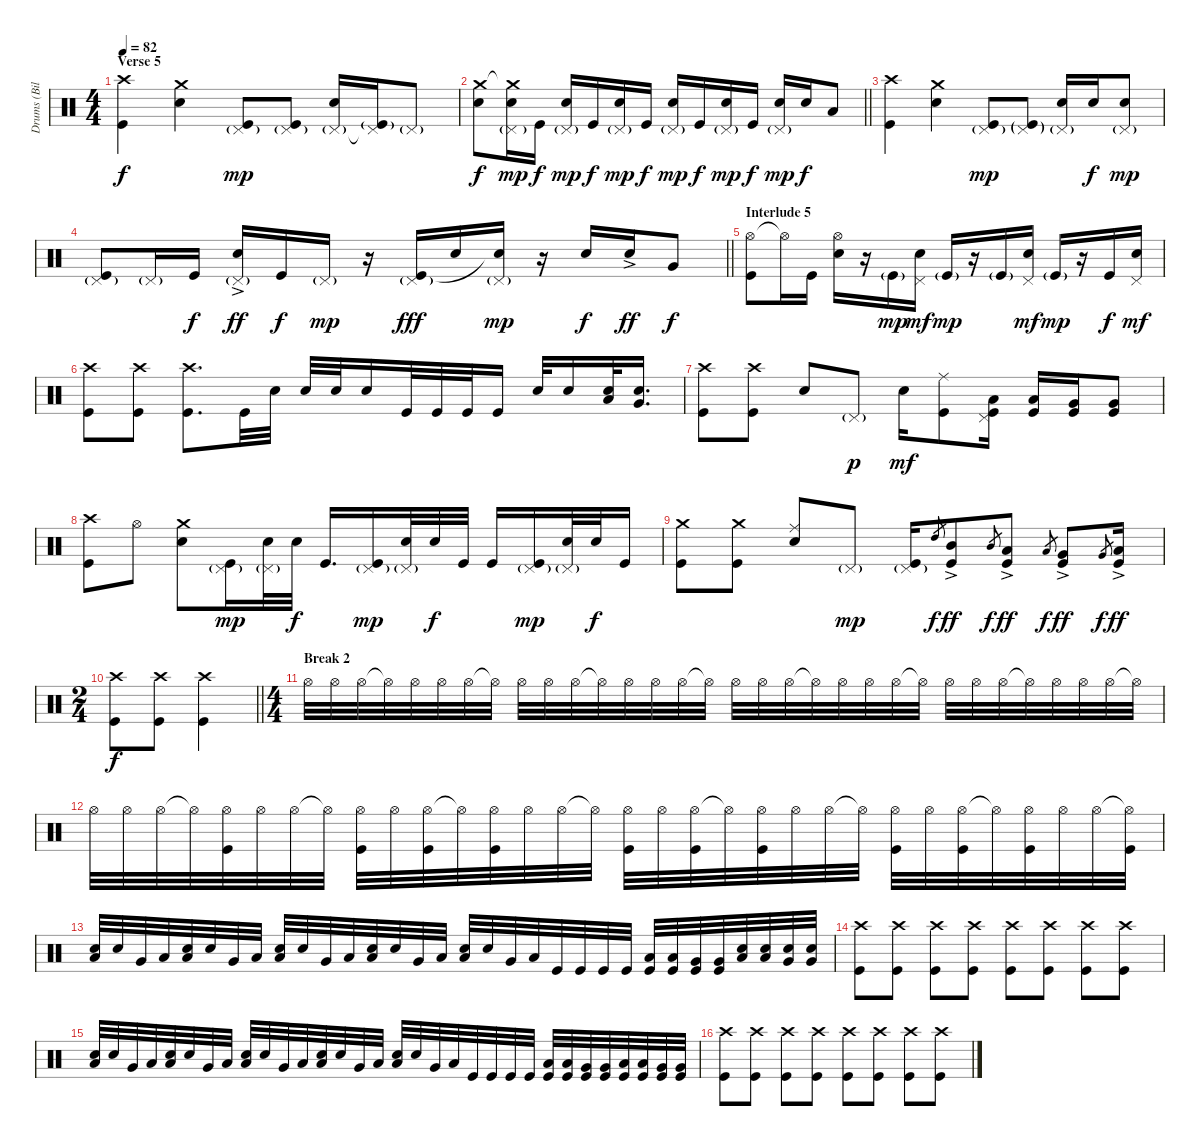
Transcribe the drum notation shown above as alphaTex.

\track ("Drums (Bill Ward)" "Drums (Bil") {instrument percussion}
\staff {score}
\articulation defaults
\ts (4 4)
\section ("" "Verse 5")
\tempo 82
\clef neutral
\ks c
("Crash high (hit)" "Kick (hit)").4{dy f} ("Crash medium (hit)" "Electric Snare (hit)").4 ("Pedal Hi-Hat (hit)"{g} "Kick (hit)").8{dy mp} ("Pedal Hi-Hat (hit)"{g} "Kick (hit)").8 ("Pedal Hi-Hat (hit)"{g} "Electric Snare (hit)").16 ("Pedal Hi-Hat (hit)"{t} "Kick (hit)"{g}).16 "Pedal Hi-Hat (hit)"{g}.8 |
\barLineRight lightlight
("Crash medium (hit)" "Electric Snare (hit)").8{dy f} ("Crash medium (hit)"{t} "Pedal Hi-Hat (hit)"{g} "Electric Snare (hit)").16{dy mp} "Kick (hit)".16{dy f} ("Pedal Hi-Hat (hit)"{g} "Electric Snare (hit)").16{dy mp} "Kick (hit)".16{dy f} ("Pedal Hi-Hat (hit)"{g} "Electric Snare (hit)").16{dy mp} "Kick (hit)".16{dy f} ("Pedal Hi-Hat (hit)"{g} "Electric Snare (hit)").16{dy mp} "Kick (hit)".16{dy f} ("Pedal Hi-Hat (hit)"{g} "Electric Snare (hit)").16{dy mp} "Kick (hit)".16{dy f} ("Pedal Hi-Hat (hit)"{g} "Electric Snare (hit)").16{dy mp} "Electric Snare (hit)".16{dy f} "Low Tom (hit)".8 |
("Crash high (hit)" "Kick (hit)").4 ("Crash medium (hit)" "Electric Snare (hit)").4 ("Pedal Hi-Hat (hit)"{g} "Kick (hit)").8{dy mp} ("Pedal Hi-Hat (hit)"{g} "Kick (hit)"{g}).8 ("Pedal Hi-Hat (hit)"{g} "Electric Snare (hit)").16 "Electric Snare (hit)".16{dy f} ("Pedal Hi-Hat (hit)"{g} "Electric Snare (hit)").8{dy mp} |
\barLineRight lightlight
("Pedal Hi-Hat (hit)"{g} "Kick (hit)").8 "Pedal Hi-Hat (hit)"{g}.16 "Kick (hit)".16{dy f} ("Pedal Hi-Hat (hit)"{g} "Electric Snare (hit)"{ac}).16{dy ff} "Kick (hit)".16{dy f} "Pedal Hi-Hat (hit)"{g}.16{dy mp} r.16 ("Pedal Hi-Hat (hit)"{g} "Kick (hit)").16{dy fff} "Electric Snare (hit)".16 ("Pedal Hi-Hat (hit)"{g} "Electric Snare (hit)"{t}).16{dy mp} r.16 "Electric Snare (hit)".16{dy f} "Electric Snare (hit)"{ac}.16{dy ff} "Very Low Tom (hit)".8{dy f} |
\section ("" "Interlude 5")
("Hi-Hat (open)" "Kick (hit)").8 "Hi-Hat (open)"{t}.16 "Kick (hit)".16 ("Hi-Hat (open)" "Electric Snare (hit)").16 r.16 "Kick (hit)"{g}.16{dy mp} ("Pedal Hi-Hat (hit)" "Electric Snare (hit)").16{dy mf} "Kick (hit)"{g}.16{dy mp} r.16 "Kick (hit)"{g}.16 ("Pedal Hi-Hat (hit)" "Electric Snare (hit)").16{dy mf} "Kick (hit)"{g}.16{dy mp} r.16 "Kick (hit)".16{dy f} ("Pedal Hi-Hat (hit)" "Electric Snare (hit)").16{dy mf} |
("Crash high (hit)" "Kick (hit)").8 ("Crash high (hit)" "Kick (hit)").8 ("Crash high (hit)" "Kick (hit)").8{d} "Kick (hit)".32 "Electric Snare (hit)".32 "Electric Snare (hit)".32 "Electric Snare (hit)".32 "Electric Snare (hit)".16 "Kick (hit)".32 "Kick (hit)".32 "Kick (hit)".32 "Kick (hit)".16 "Electric Snare (hit)".32 "Electric Snare (hit)".16 ("Low Tom (hit)" "Electric Snare (hit)").32 ("Very Low Tom (hit)" "Electric Snare (hit)").16{d} |
("Crash high (hit)" "Kick (hit)").8 ("Crash high (hit)" "Kick (hit)").8 "Electric Snare (hit)".8 "Pedal Hi-Hat (hit)"{g}.8{dy p} "Electric Snare (hit)".16{dy mf} ("Ride (middle)" "Kick (hit)").8 ("Pedal Hi-Hat (hit)" "Low Tom (hit)" "Kick (hit)").16 ("Low Tom (hit)" "Kick (hit)").16 ("Very Low Tom (hit)" "Kick (hit)").16 ("Very Low Tom (hit)" "Kick (hit)").8 |
("Crash high (hit)" "Kick (hit)").8 "Hi-Hat (open)".8 ("Crash medium (hit)" "Electric Snare (hit)").8 ("Pedal Hi-Hat (hit)"{g} "Kick (hit)").16{dy mp} ("Pedal Hi-Hat (hit)"{g} "Electric Snare (hit)").32 "Electric Snare (hit)".32{dy f} "Kick (hit)".16{d} ("Pedal Hi-Hat (hit)"{g} "Kick (hit)").16{dy mp} ("Pedal Hi-Hat (hit)"{g} "Electric Snare (hit)").32 "Electric Snare (hit)".32{dy f} "Kick (hit)".32 "Kick (hit)".16 ("Pedal Hi-Hat (hit)"{g} "Kick (hit)").16{dy mp} ("Pedal Hi-Hat (hit)"{g} "Electric Snare (hit)").32 "Electric Snare (hit)".32{dy f} "Kick (hit)".16 |
("Crash medium (hit)" "Kick (hit)").8 ("Crash medium (hit)" "Kick (hit)").8 ("Ride (middle)" "Electric Snare (hit)").8 "Pedal Hi-Hat (hit)"{g}.8{dy mp} ("Pedal Hi-Hat (hit)"{g} "Kick (hit)").16 "High Tom (hit)".8{gr dy f} ("Mid Tom (hit)"{ac} "Kick (hit)").8{dy ff} "Mid Tom (hit)".8{gr dy f} ("Low Tom (hit)"{ac} "Kick (hit)").8{dy ff} "Low Tom (hit)".8{gr dy f} ("Very Low Tom (hit)"{ac} "Kick (hit)").8{dy ff} "Very Low Tom (hit)".8{gr dy f} ("Low Floor Tom (hit)"{ac} "Kick (hit)").16{dy ff} |
\ts (2 4)
\barLineRight lightlight
("Crash high (hit)" "Kick (hit)").8{dy f} ("Crash high (hit)" "Kick (hit)").8 ("Crash high (hit)" "Kick (hit)").4 |
\ts (4 4)
\section ("" "Break 2")
"Hi-Hat (open)".32{volume 8} "Hi-Hat (open)".32{volume 14} "Hi-Hat (open)".32 "Hi-Hat (open)"{t}.32 "Hi-Hat (open)".32 "Hi-Hat (open)".32 "Hi-Hat (open)".32 "Hi-Hat (open)"{t}.32 "Hi-Hat (open)".32 "Hi-Hat (open)".32 "Hi-Hat (open)".32 "Hi-Hat (open)"{t}.32 "Hi-Hat (open)".32 "Hi-Hat (open)".32 "Hi-Hat (open)".32 "Hi-Hat (open)"{t}.32 "Hi-Hat (open)".32 "Hi-Hat (open)".32 "Hi-Hat (open)".32 "Hi-Hat (open)"{t}.32 "Hi-Hat (open)".32 "Hi-Hat (open)".32 "Hi-Hat (open)".32 "Hi-Hat (open)"{t}.32 "Hi-Hat (open)".32 "Hi-Hat (open)".32 "Hi-Hat (open)".32 "Hi-Hat (open)"{t}.32 "Hi-Hat (open)".32 "Hi-Hat (open)".32 "Hi-Hat (open)".32 "Hi-Hat (open)"{t}.32 |
"Hi-Hat (open)".32 "Hi-Hat (open)".32 "Hi-Hat (open)".32 "Hi-Hat (open)"{t}.32 ("Hi-Hat (open)" "Kick (hit)").32 "Hi-Hat (open)".32 "Hi-Hat (open)".32 "Hi-Hat (open)"{t}.32 ("Hi-Hat (open)" "Kick (hit)").32 "Hi-Hat (open)".32 ("Hi-Hat (open)" "Kick (hit)").32 "Hi-Hat (open)"{t}.32 ("Hi-Hat (open)" "Kick (hit)").32 "Hi-Hat (open)".32 "Hi-Hat (open)".32 "Hi-Hat (open)"{t}.32 ("Hi-Hat (open)" "Kick (hit)").32 "Hi-Hat (open)".32 ("Hi-Hat (open)" "Kick (hit)").32 "Hi-Hat (open)"{t}.32 ("Hi-Hat (open)" "Kick (hit)").32 "Hi-Hat (open)".32 "Hi-Hat (open)".32 "Hi-Hat (open)"{t}.32 ("Hi-Hat (open)" "Kick (hit)").32 "Hi-Hat (open)".32 ("Hi-Hat (open)" "Kick (hit)").32 "Hi-Hat (open)"{t}.32 ("Hi-Hat (open)" "Kick (hit)").32 "Hi-Hat (open)".32 "Hi-Hat (open)".32 ("Hi-Hat (open)"{t} "Kick (hit)").32 |
("Low Tom (hit)" "Electric Snare (hit)").32 "Electric Snare (hit)".32 "Very Low Tom (hit)".32 "Low Floor Tom (hit)".32 ("Low Tom (hit)" "Electric Snare (hit)").32 "Electric Snare (hit)".32 "Very Low Tom (hit)".32 "Low Floor Tom (hit)".32 ("Low Tom (hit)" "Electric Snare (hit)").32 "Electric Snare (hit)".32 "Very Low Tom (hit)".32 "Low Floor Tom (hit)".32 ("Low Tom (hit)" "Electric Snare (hit)").32 "Electric Snare (hit)".32 "Very Low Tom (hit)".32 "Low Floor Tom (hit)".32 ("Low Tom (hit)" "Electric Snare (hit)").32 "Electric Snare (hit)".32 "Very Low Tom (hit)".32 "Low Floor Tom (hit)".32 "Kick (hit)".32 "Kick (hit)".32 "Kick (hit)".32 "Kick (hit)".32 ("Low Floor Tom (hit)" "Kick (hit)").32 ("Low Floor Tom (hit)" "Kick (hit)").32 ("Very Low Tom (hit)" "Kick (hit)").32 ("Very Low Tom (hit)" "Kick (hit)").32 ("Low Floor Tom (hit)" "Electric Snare (hit)").32 ("Low Floor Tom (hit)" "Electric Snare (hit)").32 ("Very Low Tom (hit)" "Electric Snare (hit)").32 ("Very Low Tom (hit)" "Electric Snare (hit)").32 |
("Crash high (hit)" "Kick (hit)").8{volume 10} ("Crash high (hit)" "Kick (hit)").8 ("Crash high (hit)" "Kick (hit)").8 ("Crash high (hit)" "Kick (hit)").8 ("Crash high (hit)" "Kick (hit)").8 ("Crash high (hit)" "Kick (hit)").8 ("Crash high (hit)" "Kick (hit)").8 ("Crash high (hit)" "Kick (hit)").8 |
("Low Tom (hit)" "Electric Snare (hit)").32{volume 14} "Electric Snare (hit)".32 "Very Low Tom (hit)".32 "Low Floor Tom (hit)".32 ("Low Tom (hit)" "Electric Snare (hit)").32 "Electric Snare (hit)".32 "Very Low Tom (hit)".32 "Low Floor Tom (hit)".32 ("Low Tom (hit)" "Electric Snare (hit)").32 "Electric Snare (hit)".32 "Very Low Tom (hit)".32 "Low Floor Tom (hit)".32 ("Low Tom (hit)" "Electric Snare (hit)").32 "Electric Snare (hit)".32 "Very Low Tom (hit)".32 "Low Floor Tom (hit)".32 ("Low Tom (hit)" "Electric Snare (hit)").32 "Electric Snare (hit)".32 "Very Low Tom (hit)".32 "Low Floor Tom (hit)".32 "Kick (hit)".32 "Kick (hit)".32 "Kick (hit)".32 "Kick (hit)".32 ("Low Floor Tom (hit)" "Kick (hit)").32 ("Low Floor Tom (hit)" "Kick (hit)").32 ("Very Low Tom (hit)" "Kick (hit)").32 ("Very Low Tom (hit)" "Kick (hit)").32 ("Low Floor Tom (hit)" "Kick (hit)").32 ("Low Floor Tom (hit)" "Kick (hit)").32 ("Very Low Tom (hit)" "Kick (hit)").32 ("Very Low Tom (hit)" "Kick (hit)").32 |
("Crash high (hit)" "Kick (hit)").8{volume 10} ("Crash high (hit)" "Kick (hit)").8 ("Crash high (hit)" "Kick (hit)").8 ("Crash high (hit)" "Kick (hit)").8 ("Crash high (hit)" "Kick (hit)").8 ("Crash high (hit)" "Kick (hit)").8 ("Crash high (hit)" "Kick (hit)").8 ("Crash high (hit)" "Kick (hit)").8
